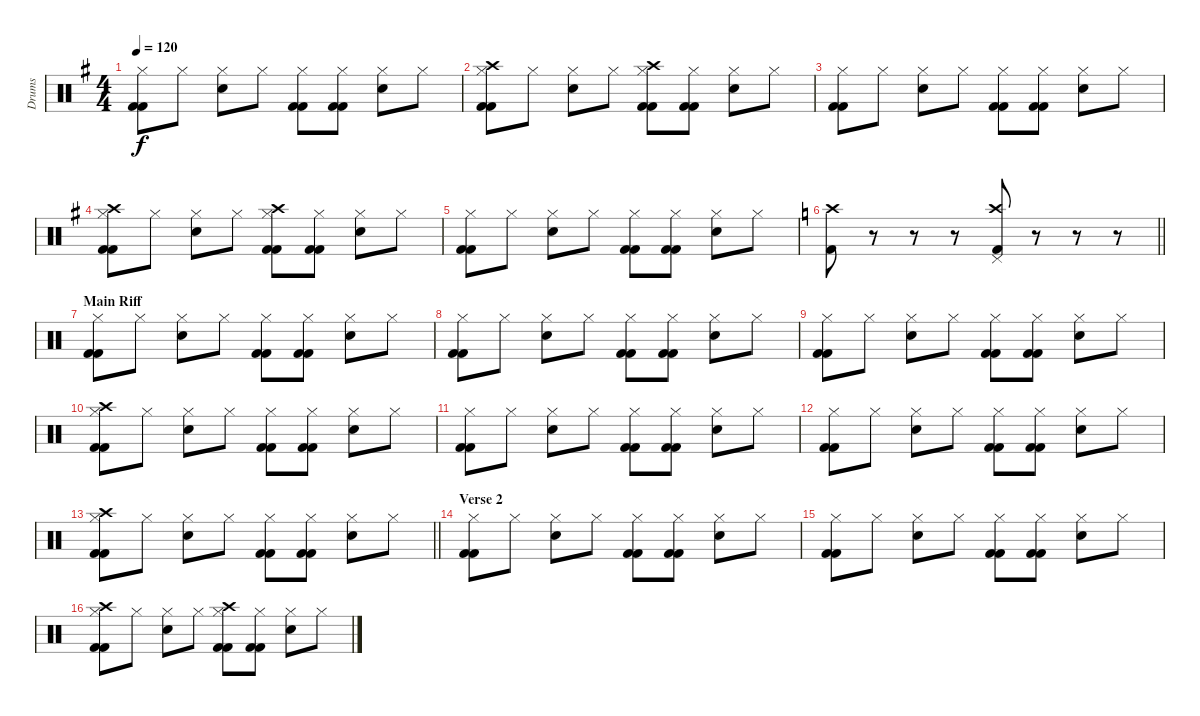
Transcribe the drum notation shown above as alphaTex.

\track ("Drums" "Drums") {instrument percussion}
\staff {score}
\articulation defaults
\ts (4 4)
\tempo 120
\clef neutral
\ks g
("Kick (hit) 2" "Hi-Hat (closed)" "Kick (hit) 2").8{dy f} "Hi-Hat (closed)".8 ("Snare (hit) 2" "Hi-Hat (closed)").8 "Hi-Hat (closed)".8 ("Kick (hit) 2" "Hi-Hat (closed)" "Kick (hit) 2").8 ("Kick (hit) 2" "Hi-Hat (closed)" "Kick (hit) 2").8 ("Snare (hit) 2" "Hi-Hat (closed)").8 "Hi-Hat (closed)".8 |
("Kick (hit) 2" "Hi-Hat (closed)" "Kick (hit) 2" "Crash high (hit)").8 "Hi-Hat (closed)".8 ("Snare (hit) 2" "Hi-Hat (closed)").8 "Hi-Hat (closed)".8 ("Kick (hit) 2" "Hi-Hat (closed)" "Kick (hit) 2" "Crash high (hit)").8 ("Kick (hit) 2" "Hi-Hat (closed)" "Kick (hit) 2").8 ("Snare (hit) 2" "Hi-Hat (closed)").8 "Hi-Hat (closed)".8 |
("Kick (hit) 2" "Hi-Hat (closed)" "Kick (hit) 2").8 "Hi-Hat (closed)".8 ("Snare (hit) 2" "Hi-Hat (closed)").8 "Hi-Hat (closed)".8 ("Kick (hit) 2" "Hi-Hat (closed)" "Kick (hit) 2").8 ("Kick (hit) 2" "Hi-Hat (closed)" "Kick (hit) 2").8 ("Snare (hit) 2" "Hi-Hat (closed)").8 "Hi-Hat (closed)".8 |
("Kick (hit) 2" "Hi-Hat (closed)" "Kick (hit) 2" "Crash high (hit)").8 "Hi-Hat (closed)".8 ("Snare (hit) 2" "Hi-Hat (closed)").8 "Hi-Hat (closed)".8 ("Kick (hit) 2" "Hi-Hat (closed)" "Kick (hit) 2" "Crash high (hit)").8 ("Kick (hit) 2" "Hi-Hat (closed)" "Kick (hit) 2").8 ("Snare (hit) 2" "Hi-Hat (closed)").8 "Hi-Hat (closed)".8 |
("Kick (hit) 2" "Hi-Hat (closed)" "Kick (hit) 2").8 "Hi-Hat (closed)".8 ("Snare (hit) 2" "Hi-Hat (closed)").8 "Hi-Hat (closed)".8 ("Kick (hit) 2" "Hi-Hat (closed)" "Kick (hit) 2").8 ("Kick (hit) 2" "Hi-Hat (closed)" "Kick (hit) 2").8 ("Snare (hit) 2" "Hi-Hat (closed)").8 "Hi-Hat (closed)".8 |
\barLineRight lightlight
\ks c
("Crash high (hit)" "Kick (hit) 2").8 r.8 r.8 r.8 ("Crash high (hit)" "Pedal Hi-Hat (hit)" "Kick (hit) 2").8 r.8 r.8 r.8 |
\section ("" "Main Riff")
("Kick (hit) 2" "Hi-Hat (closed)" "Kick (hit) 2").8 "Hi-Hat (closed)".8 ("Snare (hit) 2" "Hi-Hat (closed)").8 "Hi-Hat (closed)".8 ("Kick (hit) 2" "Hi-Hat (closed)" "Kick (hit) 2").8 ("Kick (hit) 2" "Hi-Hat (closed)" "Kick (hit) 2").8 ("Snare (hit) 2" "Hi-Hat (closed)").8 "Hi-Hat (closed)".8 |
("Kick (hit) 2" "Hi-Hat (closed)" "Kick (hit) 2").8 "Hi-Hat (closed)".8 ("Snare (hit) 2" "Hi-Hat (closed)").8 "Hi-Hat (closed)".8 ("Kick (hit) 2" "Hi-Hat (closed)" "Kick (hit) 2").8 ("Kick (hit) 2" "Hi-Hat (closed)" "Kick (hit) 2").8 ("Snare (hit) 2" "Hi-Hat (closed)").8 "Hi-Hat (closed)".8 |
("Kick (hit) 2" "Hi-Hat (closed)" "Kick (hit) 2").8 "Hi-Hat (closed)".8 ("Snare (hit) 2" "Hi-Hat (closed)").8 "Hi-Hat (closed)".8 ("Kick (hit) 2" "Hi-Hat (closed)" "Kick (hit) 2").8 ("Kick (hit) 2" "Hi-Hat (closed)" "Kick (hit) 2").8 ("Snare (hit) 2" "Hi-Hat (closed)").8 "Hi-Hat (closed)".8 |
("Kick (hit) 2" "Hi-Hat (closed)" "Kick (hit) 2" "Crash high (hit)").8 "Hi-Hat (closed)".8 ("Snare (hit) 2" "Hi-Hat (closed)").8 "Hi-Hat (closed)".8 ("Kick (hit) 2" "Hi-Hat (closed)" "Kick (hit) 2").8 ("Kick (hit) 2" "Hi-Hat (closed)" "Kick (hit) 2").8 ("Snare (hit) 2" "Hi-Hat (closed)").8 "Hi-Hat (closed)".8 |
("Kick (hit) 2" "Hi-Hat (closed)" "Kick (hit) 2").8 "Hi-Hat (closed)".8 ("Snare (hit) 2" "Hi-Hat (closed)").8 "Hi-Hat (closed)".8 ("Kick (hit) 2" "Hi-Hat (closed)" "Kick (hit) 2").8 ("Kick (hit) 2" "Hi-Hat (closed)" "Kick (hit) 2").8 ("Snare (hit) 2" "Hi-Hat (closed)").8 "Hi-Hat (closed)".8 |
("Kick (hit) 2" "Hi-Hat (closed)" "Kick (hit) 2").8 "Hi-Hat (closed)".8 ("Snare (hit) 2" "Hi-Hat (closed)").8 "Hi-Hat (closed)".8 ("Kick (hit) 2" "Hi-Hat (closed)" "Kick (hit) 2").8 ("Kick (hit) 2" "Hi-Hat (closed)" "Kick (hit) 2").8 ("Snare (hit) 2" "Hi-Hat (closed)").8 "Hi-Hat (closed)".8 |
\barLineRight lightlight
("Kick (hit) 2" "Hi-Hat (closed)" "Kick (hit) 2" "Crash high (hit)").8 "Hi-Hat (closed)".8 ("Snare (hit) 2" "Hi-Hat (closed)").8 "Hi-Hat (closed)".8 ("Kick (hit) 2" "Hi-Hat (closed)" "Kick (hit) 2").8 ("Kick (hit) 2" "Hi-Hat (closed)" "Kick (hit) 2").8 ("Snare (hit) 2" "Hi-Hat (closed)").8 "Hi-Hat (closed)".8 |
\section ("" "Verse 2")
("Kick (hit) 2" "Hi-Hat (closed)" "Kick (hit) 2").8 "Hi-Hat (closed)".8 ("Snare (hit) 2" "Hi-Hat (closed)").8 "Hi-Hat (closed)".8 ("Kick (hit) 2" "Hi-Hat (closed)" "Kick (hit) 2").8 ("Kick (hit) 2" "Hi-Hat (closed)" "Kick (hit) 2").8 ("Snare (hit) 2" "Hi-Hat (closed)").8 "Hi-Hat (closed)".8 |
("Kick (hit) 2" "Hi-Hat (closed)" "Kick (hit) 2").8 "Hi-Hat (closed)".8 ("Snare (hit) 2" "Hi-Hat (closed)").8 "Hi-Hat (closed)".8 ("Kick (hit) 2" "Hi-Hat (closed)" "Kick (hit) 2").8 ("Kick (hit) 2" "Hi-Hat (closed)" "Kick (hit) 2").8 ("Snare (hit) 2" "Hi-Hat (closed)").8 "Hi-Hat (closed)".8 |
("Kick (hit) 2" "Hi-Hat (closed)" "Kick (hit) 2" "Crash high (hit)").8 "Hi-Hat (closed)".8 ("Snare (hit) 2" "Hi-Hat (closed)").8 "Hi-Hat (closed)".8 ("Kick (hit) 2" "Hi-Hat (closed)" "Kick (hit) 2" "Crash high (hit)").8 ("Kick (hit) 2" "Hi-Hat (closed)" "Kick (hit) 2").8 ("Snare (hit) 2" "Hi-Hat (closed)").8 "Hi-Hat (closed)".8
